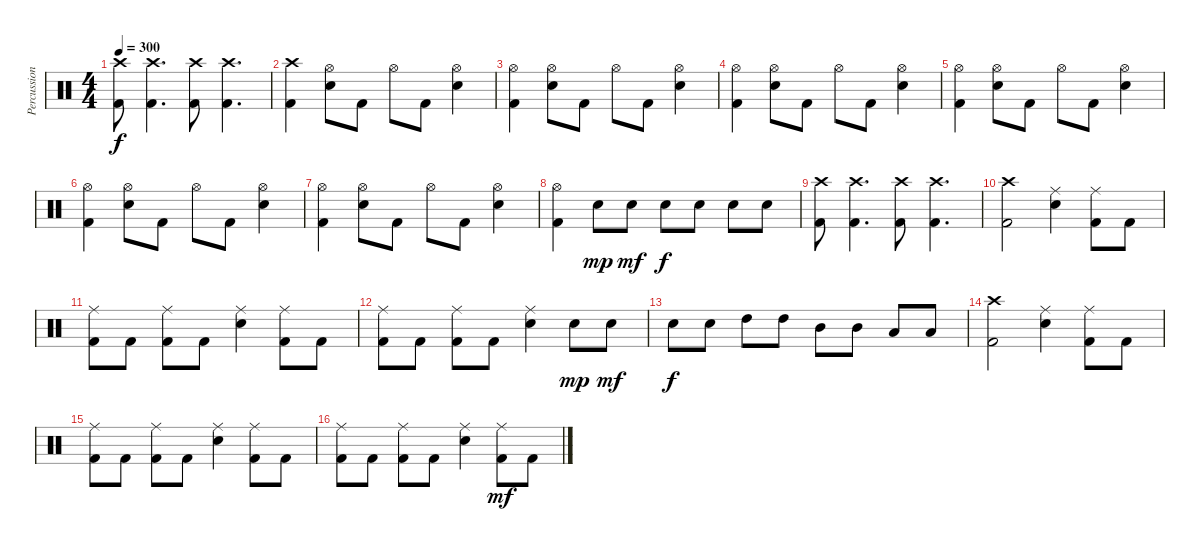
\track ("Percussion" "Percussion") {instrument percussion}
\staff {score}
\articulation defaults
\ts (4 4)
\tempo 300
\clef neutral
\ks c
("Crash high (hit)" "Kick (hit) 2").8{dy f} ("Crash high (hit)" "Kick (hit) 2").4{d} ("Crash high (hit)" "Kick (hit) 2").8 ("Crash high (hit)" "Kick (hit) 2").4{d} |
("Crash high (hit)" "Kick (hit) 2").4 ("Hi-Hat (open)" "Electric Snare (hit)").8 "Kick (hit) 2".8 "Hi-Hat (open)".8 "Kick (hit) 2".8 ("Hi-Hat (open)" "Electric Snare (hit)").4 |
("Hi-Hat (open)" "Kick (hit) 2").4 ("Hi-Hat (open)" "Electric Snare (hit)").8 "Kick (hit) 2".8 "Hi-Hat (open)".8 "Kick (hit) 2".8 ("Hi-Hat (open)" "Electric Snare (hit)").4 |
("Hi-Hat (open)" "Kick (hit) 2").4 ("Hi-Hat (open)" "Electric Snare (hit)").8 "Kick (hit) 2".8 "Hi-Hat (open)".8 "Kick (hit) 2".8 ("Hi-Hat (open)" "Electric Snare (hit)").4 |
("Hi-Hat (open)" "Kick (hit) 2").4 ("Hi-Hat (open)" "Electric Snare (hit)").8 "Kick (hit) 2".8 "Hi-Hat (open)".8 "Kick (hit) 2".8 ("Hi-Hat (open)" "Electric Snare (hit)").4 |
("Hi-Hat (open)" "Kick (hit) 2").4 ("Hi-Hat (open)" "Electric Snare (hit)").8 "Kick (hit) 2".8 "Hi-Hat (open)".8 "Kick (hit) 2".8 ("Hi-Hat (open)" "Electric Snare (hit)").4 |
("Hi-Hat (open)" "Kick (hit) 2").4 ("Hi-Hat (open)" "Electric Snare (hit)").8 "Kick (hit) 2".8 "Hi-Hat (open)".8 "Kick (hit) 2".8 ("Hi-Hat (open)" "Electric Snare (hit)").4 |
("Hi-Hat (open)" "Kick (hit) 2").4 "Electric Snare (hit)".8{dy mp} "Electric Snare (hit)".8{dy mf} "Electric Snare (hit)".8{dy f} "Electric Snare (hit)".8 "Electric Snare (hit)".8 "Electric Snare (hit)".8 |
("Crash high (hit)" "Kick (hit) 2").8 ("Crash high (hit)" "Kick (hit) 2").4{d} ("Crash high (hit)" "Kick (hit) 2").8 ("Crash high (hit)" "Kick (hit) 2").4{d} |
("Crash high (hit)" "Kick (hit) 2").2 ("Ride (middle)" "Electric Snare (hit)").4 ("Ride (middle)" "Kick (hit) 2").8 "Kick (hit) 2".8 |
("Ride (middle)" "Kick (hit) 2").8 "Kick (hit) 2".8 ("Ride (middle)" "Kick (hit) 2").8 "Kick (hit) 2".8 ("Ride (middle)" "Electric Snare (hit)").4 ("Ride (middle)" "Kick (hit) 2").8 "Kick (hit) 2".8 |
("Ride (middle)" "Kick (hit) 2").8 "Kick (hit) 2".8 ("Ride (middle)" "Kick (hit) 2").8 "Kick (hit) 2".8 ("Ride (middle)" "Electric Snare (hit)").4 "Electric Snare (hit)".8{dy mp} "Electric Snare (hit)".8{dy mf} |
"Electric Snare (hit)".8{dy f} "Electric Snare (hit)".8 "High Tom (hit)".8 "High Tom (hit)".8 "Mid Tom (hit)".8 "Mid Tom (hit)".8 "Low Tom (hit)".8 "Low Tom (hit)".8 |
("Crash high (hit)" "Kick (hit) 2").2 ("Ride (middle)" "Electric Snare (hit)").4 ("Ride (middle)" "Kick (hit) 2").8 "Kick (hit) 2".8 |
("Ride (middle)" "Kick (hit) 2").8 "Kick (hit) 2".8 ("Ride (middle)" "Kick (hit) 2").8 "Kick (hit) 2".8 ("Ride (middle)" "Electric Snare (hit)").4 ("Ride (middle)" "Kick (hit) 2").8 "Kick (hit) 2".8 |
("Ride (middle)" "Kick (hit) 2").8 "Kick (hit) 2".8 ("Ride (middle)" "Kick (hit) 2").8 "Kick (hit) 2".8 ("Ride (middle)" "Electric Snare (hit)").4 ("Ride (middle)" "Kick (hit) 2").8{dy mf} "Kick (hit) 2".8
